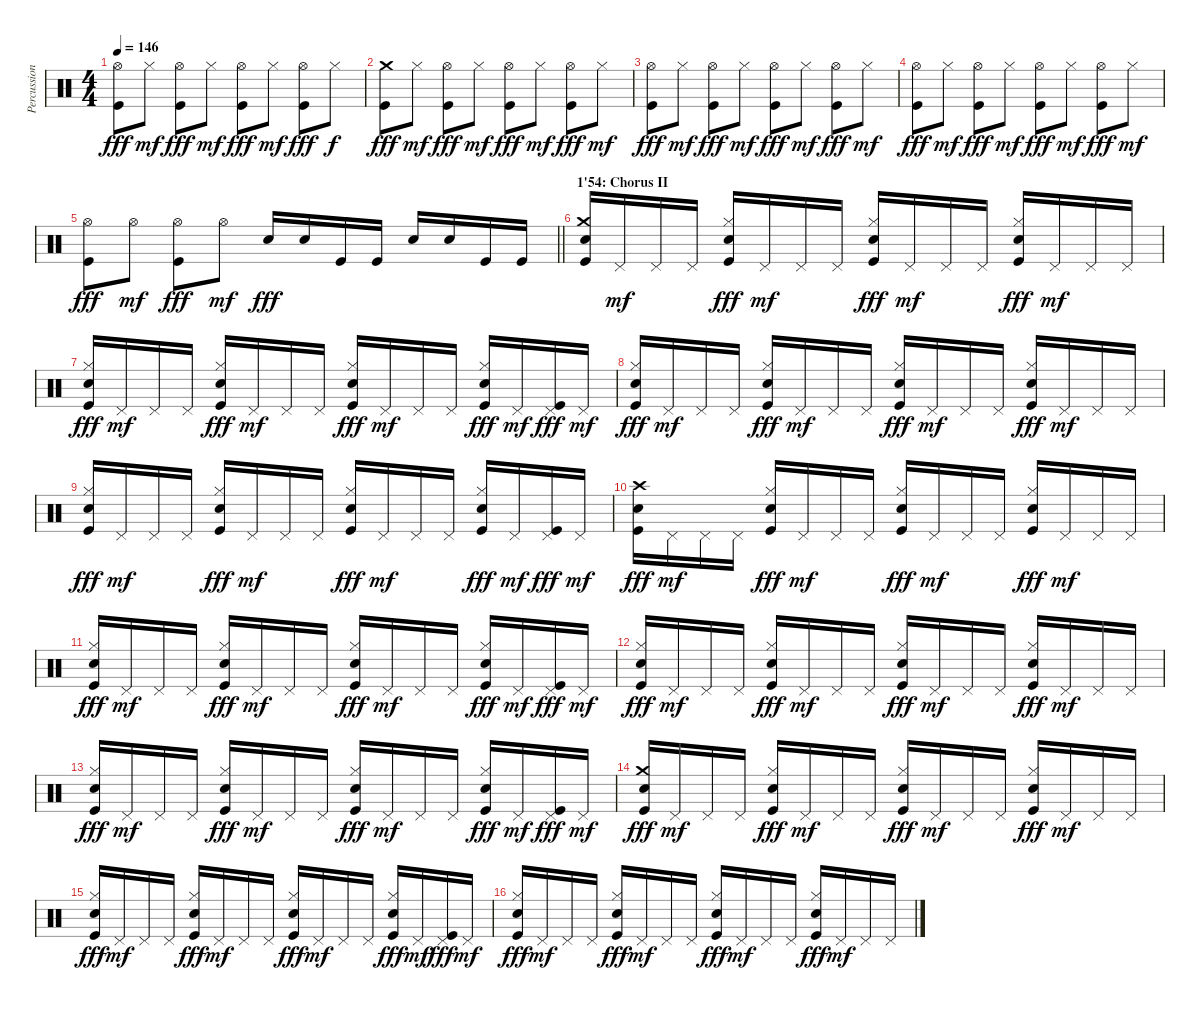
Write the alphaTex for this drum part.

\track ("Percussions" "Percussion") {instrument percussion}
\staff {score}
\articulation defaults
\ts (4 4)
\tempo 146
\clef neutral
\ks c
("Hi-Hat (open)" "Kick (hit)").8{dy fff} "Hi-Hat (closed)".8{dy mf} ("Hi-Hat (open)" "Kick (hit)").8{dy fff} "Hi-Hat (closed)".8{dy mf} ("Hi-Hat (open)" "Kick (hit)").8{dy fff} "Hi-Hat (closed)".8{dy mf} ("Hi-Hat (open)" "Kick (hit)").8{dy fff} "Hi-Hat (closed)".8{dy f} |
("Crash medium (hit)" "Kick (hit)").8{dy fff} "Hi-Hat (closed)".8{dy mf} ("Hi-Hat (open)" "Kick (hit)").8{dy fff} "Hi-Hat (closed)".8{dy mf} ("Hi-Hat (open)" "Kick (hit)").8{dy fff} "Hi-Hat (closed)".8{dy mf} ("Hi-Hat (open)" "Kick (hit)").8{dy fff} "Hi-Hat (closed)".8{dy mf} |
("Hi-Hat (open)" "Kick (hit)").8{dy fff} "Hi-Hat (closed)".8{dy mf} ("Hi-Hat (open)" "Kick (hit)").8{dy fff} "Hi-Hat (closed)".8{dy mf} ("Hi-Hat (open)" "Kick (hit)").8{dy fff} "Hi-Hat (closed)".8{dy mf} ("Hi-Hat (open)" "Kick (hit)").8{dy fff} "Hi-Hat (closed)".8{dy mf} |
("Hi-Hat (open)" "Kick (hit)").8{dy fff} "Hi-Hat (closed)".8{dy mf} ("Hi-Hat (open)" "Kick (hit)").8{dy fff} "Hi-Hat (closed)".8{dy mf} ("Hi-Hat (open)" "Kick (hit)").8{dy fff} "Hi-Hat (closed)".8{dy mf} ("Hi-Hat (open)" "Kick (hit)").8{dy fff} "Hi-Hat (closed)".8{dy mf} |
\barLineRight lightlight
("Hi-Hat (open)" "Kick (hit)").8{dy fff} "Hi-Hat (open)".8{dy mf} ("Hi-Hat (open)" "Kick (hit)").8{dy fff} "Hi-Hat (open)".8{dy mf} "Snare (hit) 2".16{dy fff} "Snare (hit) 2".16 "Kick (hit)".16 "Kick (hit)".16 "Snare (hit) 2".16 "Snare (hit) 2".16 "Kick (hit)".16 "Kick (hit)".16 |
\section ("" "1'54: Chorus II")
("Crash medium (hit)" "Snare (hit) 2" "Kick (hit)").16 "Pedal Hi-Hat (hit)".16{dy mf} "Pedal Hi-Hat (hit)".16 "Pedal Hi-Hat (hit)".16 ("Hi-Hat (closed)" "Snare (hit) 2" "Kick (hit)").16{dy fff} "Pedal Hi-Hat (hit)".16{dy mf} "Pedal Hi-Hat (hit)".16 "Pedal Hi-Hat (hit)".16 ("Hi-Hat (closed)" "Snare (hit) 2" "Kick (hit)").16{dy fff} "Pedal Hi-Hat (hit)".16{dy mf} "Pedal Hi-Hat (hit)".16 "Pedal Hi-Hat (hit)".16 ("Hi-Hat (closed)" "Snare (hit) 2" "Kick (hit)").16{dy fff} "Pedal Hi-Hat (hit)".16{dy mf} "Pedal Hi-Hat (hit)".16 "Pedal Hi-Hat (hit)".16 |
("Hi-Hat (closed)" "Snare (hit) 2" "Kick (hit)").16{dy fff} "Pedal Hi-Hat (hit)".16{dy mf} "Pedal Hi-Hat (hit)".16 "Pedal Hi-Hat (hit)".16 ("Hi-Hat (closed)" "Snare (hit) 2" "Kick (hit)").16{dy fff} "Pedal Hi-Hat (hit)".16{dy mf} "Pedal Hi-Hat (hit)".16 "Pedal Hi-Hat (hit)".16 ("Hi-Hat (closed)" "Snare (hit) 2" "Kick (hit)").16{dy fff} "Pedal Hi-Hat (hit)".16{dy mf} "Pedal Hi-Hat (hit)".16 "Pedal Hi-Hat (hit)".16 ("Hi-Hat (closed)" "Snare (hit) 2" "Kick (hit)").16{dy fff} "Pedal Hi-Hat (hit)".16{dy mf} ("Pedal Hi-Hat (hit)" "Kick (hit)").16{dy fff} "Pedal Hi-Hat (hit)".16{dy mf} |
("Hi-Hat (closed)" "Snare (hit) 2" "Kick (hit)").16{dy fff} "Pedal Hi-Hat (hit)".16{dy mf} "Pedal Hi-Hat (hit)".16 "Pedal Hi-Hat (hit)".16 ("Hi-Hat (closed)" "Snare (hit) 2" "Kick (hit)").16{dy fff} "Pedal Hi-Hat (hit)".16{dy mf} "Pedal Hi-Hat (hit)".16 "Pedal Hi-Hat (hit)".16 ("Hi-Hat (closed)" "Snare (hit) 2" "Kick (hit)").16{dy fff} "Pedal Hi-Hat (hit)".16{dy mf} "Pedal Hi-Hat (hit)".16 "Pedal Hi-Hat (hit)".16 ("Hi-Hat (closed)" "Snare (hit) 2" "Kick (hit)").16{dy fff} "Pedal Hi-Hat (hit)".16{dy mf} "Pedal Hi-Hat (hit)".16 "Pedal Hi-Hat (hit)".16 |
("Hi-Hat (closed)" "Snare (hit) 2" "Kick (hit)").16{dy fff} "Pedal Hi-Hat (hit)".16{dy mf} "Pedal Hi-Hat (hit)".16 "Pedal Hi-Hat (hit)".16 ("Hi-Hat (closed)" "Snare (hit) 2" "Kick (hit)").16{dy fff} "Pedal Hi-Hat (hit)".16{dy mf} "Pedal Hi-Hat (hit)".16 "Pedal Hi-Hat (hit)".16 ("Hi-Hat (closed)" "Snare (hit) 2" "Kick (hit)").16{dy fff} "Pedal Hi-Hat (hit)".16{dy mf} "Pedal Hi-Hat (hit)".16 "Pedal Hi-Hat (hit)".16 ("Hi-Hat (closed)" "Snare (hit) 2" "Kick (hit)").16{dy fff} "Pedal Hi-Hat (hit)".16{dy mf} ("Pedal Hi-Hat (hit)" "Kick (hit)").16{dy fff} "Pedal Hi-Hat (hit)".16{dy mf} |
("Crash high (hit)" "Snare (hit) 2" "Kick (hit)").16{dy fff} "Pedal Hi-Hat (hit)".16{dy mf} "Pedal Hi-Hat (hit)".16 "Pedal Hi-Hat (hit)".16 ("Hi-Hat (closed)" "Snare (hit) 2" "Kick (hit)").16{dy fff} "Pedal Hi-Hat (hit)".16{dy mf} "Pedal Hi-Hat (hit)".16 "Pedal Hi-Hat (hit)".16 ("Hi-Hat (closed)" "Snare (hit) 2" "Kick (hit)").16{dy fff} "Pedal Hi-Hat (hit)".16{dy mf} "Pedal Hi-Hat (hit)".16 "Pedal Hi-Hat (hit)".16 ("Hi-Hat (closed)" "Snare (hit) 2" "Kick (hit)").16{dy fff} "Pedal Hi-Hat (hit)".16{dy mf} "Pedal Hi-Hat (hit)".16 "Pedal Hi-Hat (hit)".16 |
("Hi-Hat (closed)" "Snare (hit) 2" "Kick (hit)").16{dy fff} "Pedal Hi-Hat (hit)".16{dy mf} "Pedal Hi-Hat (hit)".16 "Pedal Hi-Hat (hit)".16 ("Hi-Hat (closed)" "Snare (hit) 2" "Kick (hit)").16{dy fff} "Pedal Hi-Hat (hit)".16{dy mf} "Pedal Hi-Hat (hit)".16 "Pedal Hi-Hat (hit)".16 ("Hi-Hat (closed)" "Snare (hit) 2" "Kick (hit)").16{dy fff} "Pedal Hi-Hat (hit)".16{dy mf} "Pedal Hi-Hat (hit)".16 "Pedal Hi-Hat (hit)".16 ("Hi-Hat (closed)" "Snare (hit) 2" "Kick (hit)").16{dy fff} "Pedal Hi-Hat (hit)".16{dy mf} ("Pedal Hi-Hat (hit)" "Kick (hit)").16{dy fff} "Pedal Hi-Hat (hit)".16{dy mf} |
("Hi-Hat (closed)" "Snare (hit) 2" "Kick (hit)").16{dy fff} "Pedal Hi-Hat (hit)".16{dy mf} "Pedal Hi-Hat (hit)".16 "Pedal Hi-Hat (hit)".16 ("Hi-Hat (closed)" "Snare (hit) 2" "Kick (hit)").16{dy fff} "Pedal Hi-Hat (hit)".16{dy mf} "Pedal Hi-Hat (hit)".16 "Pedal Hi-Hat (hit)".16 ("Hi-Hat (closed)" "Snare (hit) 2" "Kick (hit)").16{dy fff} "Pedal Hi-Hat (hit)".16{dy mf} "Pedal Hi-Hat (hit)".16 "Pedal Hi-Hat (hit)".16 ("Hi-Hat (closed)" "Snare (hit) 2" "Kick (hit)").16{dy fff} "Pedal Hi-Hat (hit)".16{dy mf} "Pedal Hi-Hat (hit)".16 "Pedal Hi-Hat (hit)".16 |
("Hi-Hat (closed)" "Snare (hit) 2" "Kick (hit)").16{dy fff} "Pedal Hi-Hat (hit)".16{dy mf} "Pedal Hi-Hat (hit)".16 "Pedal Hi-Hat (hit)".16 ("Hi-Hat (closed)" "Snare (hit) 2" "Kick (hit)").16{dy fff} "Pedal Hi-Hat (hit)".16{dy mf} "Pedal Hi-Hat (hit)".16 "Pedal Hi-Hat (hit)".16 ("Hi-Hat (closed)" "Snare (hit) 2" "Kick (hit)").16{dy fff} "Pedal Hi-Hat (hit)".16{dy mf} "Pedal Hi-Hat (hit)".16 "Pedal Hi-Hat (hit)".16 ("Hi-Hat (closed)" "Snare (hit) 2" "Kick (hit)").16{dy fff} "Pedal Hi-Hat (hit)".16{dy mf} ("Pedal Hi-Hat (hit)" "Kick (hit)").16{dy fff} "Pedal Hi-Hat (hit)".16{dy mf} |
("Crash medium (hit)" "Snare (hit) 2" "Kick (hit)").16{dy fff} "Pedal Hi-Hat (hit)".16{dy mf} "Pedal Hi-Hat (hit)".16 "Pedal Hi-Hat (hit)".16 ("Hi-Hat (closed)" "Snare (hit) 2" "Kick (hit)").16{dy fff} "Pedal Hi-Hat (hit)".16{dy mf} "Pedal Hi-Hat (hit)".16 "Pedal Hi-Hat (hit)".16 ("Hi-Hat (closed)" "Snare (hit) 2" "Kick (hit)").16{dy fff} "Pedal Hi-Hat (hit)".16{dy mf} "Pedal Hi-Hat (hit)".16 "Pedal Hi-Hat (hit)".16 ("Hi-Hat (closed)" "Snare (hit) 2" "Kick (hit)").16{dy fff} "Pedal Hi-Hat (hit)".16{dy mf} "Pedal Hi-Hat (hit)".16 "Pedal Hi-Hat (hit)".16 |
("Hi-Hat (closed)" "Snare (hit) 2" "Kick (hit)").16{dy fff} "Pedal Hi-Hat (hit)".16{dy mf} "Pedal Hi-Hat (hit)".16 "Pedal Hi-Hat (hit)".16 ("Hi-Hat (closed)" "Snare (hit) 2" "Kick (hit)").16{dy fff} "Pedal Hi-Hat (hit)".16{dy mf} "Pedal Hi-Hat (hit)".16 "Pedal Hi-Hat (hit)".16 ("Hi-Hat (closed)" "Snare (hit) 2" "Kick (hit)").16{dy fff} "Pedal Hi-Hat (hit)".16{dy mf} "Pedal Hi-Hat (hit)".16 "Pedal Hi-Hat (hit)".16 ("Hi-Hat (closed)" "Snare (hit) 2" "Kick (hit)").16{dy fff} "Pedal Hi-Hat (hit)".16{dy mf} ("Pedal Hi-Hat (hit)" "Kick (hit)").16{dy fff} "Pedal Hi-Hat (hit)".16{dy mf} |
("Hi-Hat (closed)" "Snare (hit) 2" "Kick (hit)").16{dy fff} "Pedal Hi-Hat (hit)".16{dy mf} "Pedal Hi-Hat (hit)".16 "Pedal Hi-Hat (hit)".16 ("Hi-Hat (closed)" "Snare (hit) 2" "Kick (hit)").16{dy fff} "Pedal Hi-Hat (hit)".16{dy mf} "Pedal Hi-Hat (hit)".16 "Pedal Hi-Hat (hit)".16 ("Hi-Hat (closed)" "Snare (hit) 2" "Kick (hit)").16{dy fff} "Pedal Hi-Hat (hit)".16{dy mf} "Pedal Hi-Hat (hit)".16 "Pedal Hi-Hat (hit)".16 ("Hi-Hat (closed)" "Snare (hit) 2" "Kick (hit)").16{dy fff} "Pedal Hi-Hat (hit)".16{dy mf} "Pedal Hi-Hat (hit)".16 "Pedal Hi-Hat (hit)".16
